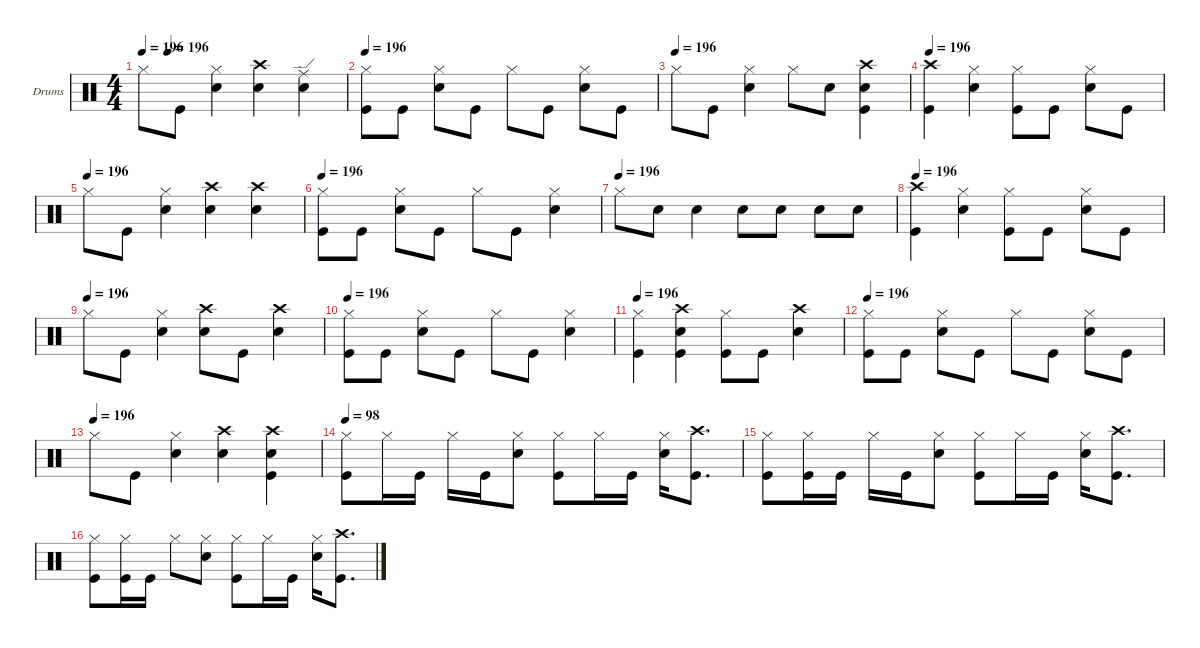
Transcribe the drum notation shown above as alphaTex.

\hideDynamics
\bracketExtendMode groupsimilarinstruments
\firstSystemTrackNameOrientation horizontal
\otherSystemsTrackNameOrientation horizontal
\track ("Drumkit" "Drums") {multiBarRest instrument percussion}
\staff {score}
\articulation defaults
\ts (4 4)
\tempo 196
\tempo (196 0.125)
\clef neutral
\ks c "Hi-Hat (closed)".8{dy f} "Kick (hit)".8
("Snare (hit) 2" "Hi-Hat (closed)").4 ("Crash high (hit)" "Snare (hit) 2").4 ("Ride (edge)" "Snare (hit) 2").4 |
\tempo 196
("Kick (hit)" "Hi-Hat (closed)").8 "Kick (hit)".8 ("Snare (hit) 2" "Hi-Hat (closed)").8 "Kick (hit)".8 "Hi-Hat (closed)".8 "Kick (hit)".8 ("Snare (hit) 2" "Hi-Hat (closed)").8 "Kick (hit)".8 |
\tempo (196)
"Hi-Hat (closed)".8 "Kick (hit)".8 ("Snare (hit) 2" "Hi-Hat (closed)").4 "Hi-Hat (closed)".8 "Snare (hit) 2".8 ("Kick (hit)" "Crash high (hit)" "Snare (hit) 2").4 |
\tempo 196
("Kick (hit)" "Crash high (hit)").4 ("Hi-Hat (closed)" "Snare (hit) 2").4 ("Kick (hit)" "Hi-Hat (closed)").8 "Kick (hit)".8 ("Snare (hit) 2" "Hi-Hat (closed)").8 "Kick (hit)".8 |
\tempo (196)
"Hi-Hat (closed)".8 "Kick (hit)".8 ("Snare (hit) 2" "Hi-Hat (closed)").4 ("Crash high (hit)" "Snare (hit) 2").4 ("Crash high (hit)" "Snare (hit) 2").4 |
\tempo 196
("Kick (hit)" "Hi-Hat (closed)").8 "Kick (hit)".8 ("Snare (hit) 2" "Hi-Hat (closed)").8 "Kick (hit)".8 "Hi-Hat (closed)".8 "Kick (hit)".8 ("Snare (hit) 2" "Hi-Hat (closed)").4 |
\tempo (196)
"Hi-Hat (closed)".8 "Snare (hit) 2".8 "Snare (hit) 2".4 "Snare (hit) 2".8 "Snare (hit) 2".8 "Snare (hit) 2".8 "Snare (hit) 2".8 |
\tempo 196
("Kick (hit)" "Crash high (hit)").4 ("Snare (hit) 2" "Hi-Hat (closed)").4 ("Kick (hit)" "Hi-Hat (closed)").8 "Kick (hit)".8 ("Snare (hit) 2" "Hi-Hat (closed)").8 "Kick (hit)".8 |
\tempo (196)
"Hi-Hat (closed)".8 "Kick (hit)".8 ("Snare (hit) 2" "Hi-Hat (closed)").4 ("Crash high (hit)" "Snare (hit) 2").8 "Kick (hit)".8 ("Crash high (hit)" "Snare (hit) 2").4 |
\tempo 196
("Hi-Hat (closed)" "Kick (hit)").8 "Kick (hit)".8 ("Snare (hit) 2" "Hi-Hat (closed)").8 "Kick (hit)".8 "Hi-Hat (closed)".8 "Kick (hit)".8 ("Snare (hit) 2" "Hi-Hat (closed)").4 |
\tempo 196
("Kick (hit)" "Hi-Hat (closed)").4 ("Crash high (hit)" "Kick (hit)" "Snare (hit) 2").4 ("Kick (hit)" "Hi-Hat (closed)").8 "Kick (hit)".8 ("Snare (hit) 2" "Crash high (hit)").4 |
\tempo 196
("Hi-Hat (closed)" "Kick (hit)").8 "Kick (hit)".8 ("Snare (hit) 2" "Hi-Hat (closed)").8 "Kick (hit)".8 "Hi-Hat (closed)".8 "Kick (hit)".8 ("Snare (hit) 2" "Hi-Hat (closed)").8 "Kick (hit)".8 |
\tempo (196)
"Hi-Hat (closed)".8 "Kick (hit)".8 ("Snare (hit) 2" "Hi-Hat (closed)").4 ("Crash high (hit)" "Snare (hit) 2").4 ("Crash high (hit)" "Kick (hit)" "Snare (hit) 2").4 |
\tempo 98
("Kick (hit)" "Hi-Hat (closed)").8 "Hi-Hat (closed)".16 "Kick (hit)".16 "Hi-Hat (closed)".16 "Kick (hit)".16 ("Snare (hit) 2" "Hi-Hat (closed)").8 ("Kick (hit)" "Hi-Hat (closed)").8 "Hi-Hat (closed)".16 "Kick (hit)".16 ("Snare (hit) 2" "Hi-Hat (closed)").16 ("Kick (hit)" "Crash high (hit)").8{d} |
("Kick (hit)" "Hi-Hat (closed)").8 ("Kick (hit)" "Hi-Hat (closed)").16 "Kick (hit)".16 "Hi-Hat (closed)".16 "Kick (hit)".16 ("Snare (hit) 2" "Hi-Hat (closed)").8 ("Kick (hit)" "Hi-Hat (closed)").8 "Hi-Hat (closed)".16 "Kick (hit)".16 ("Snare (hit) 2" "Hi-Hat (closed)").16 ("Kick (hit)" "Crash high (hit)").8{d} |
("Kick (hit)" "Hi-Hat (closed)").8 ("Kick (hit)" "Hi-Hat (closed)").16 "Kick (hit)".16 "Hi-Hat (closed)".8 ("Snare (hit) 2" "Hi-Hat (closed)").8 ("Kick (hit)" "Hi-Hat (closed)").8 "Hi-Hat (closed)".16 "Kick (hit)".16 ("Snare (hit) 2" "Hi-Hat (closed)").16 ("Kick (hit)" "Crash high (hit)").8{d}
